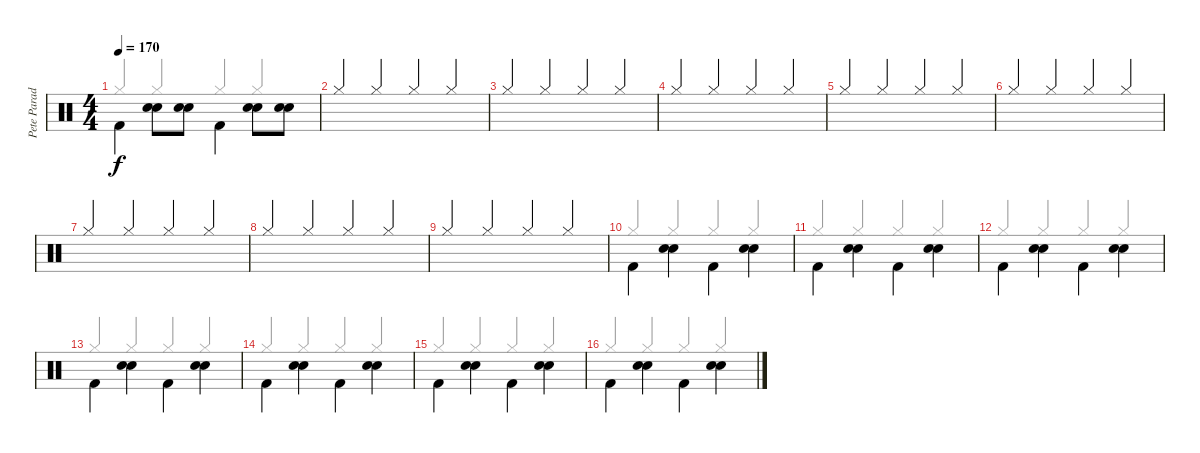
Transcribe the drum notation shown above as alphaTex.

\track ("Pete Parada" "Pete Parad") {instrument percussion}
\staff {score}
\articulation defaults
\voice
\ts (4 4)
\tempo 170
\clef neutral
\ks c "Kick (hit) 2".4{dy f beam Down}
("Electric Snare (hit)" "Electric Snare (hit)").8{beam Down} ("Electric Snare (hit)" "Electric Snare (hit)").8{beam Down} "Kick (hit) 2".4{beam Down} ("Electric Snare (hit)" "Electric Snare (hit)").8{beam Down} ("Electric Snare (hit)" "Electric Snare (hit)").8{beam Down} |
"Hi-Hat (closed)".4{beam Up} "Hi-Hat (closed)".4{beam Up} "Hi-Hat (closed)".4{beam Up} "Hi-Hat (closed)".4{beam Up} |
"Hi-Hat (closed)".4{beam Up} "Hi-Hat (closed)".4{beam Up} "Hi-Hat (closed)".4{beam Up} "Hi-Hat (closed)".4{beam Up} |
"Hi-Hat (closed)".4{beam Up} "Hi-Hat (closed)".4{beam Up} "Hi-Hat (closed)".4{beam Up} "Hi-Hat (closed)".4{beam Up} |
"Hi-Hat (closed)".4{beam Up} "Hi-Hat (closed)".4{beam Up} "Hi-Hat (closed)".4{beam Up} "Hi-Hat (closed)".4{beam Up} |
"Hi-Hat (closed)".4{beam Up} "Hi-Hat (closed)".4{beam Up} "Hi-Hat (closed)".4{beam Up} "Hi-Hat (closed)".4{beam Up} |
"Hi-Hat (closed)".4{beam Up} "Hi-Hat (closed)".4{beam Up} "Hi-Hat (closed)".4{beam Up} "Hi-Hat (closed)".4{beam Up} |
"Hi-Hat (closed)".4{beam Up} "Hi-Hat (closed)".4{beam Up} "Hi-Hat (closed)".4{beam Up} "Hi-Hat (closed)".4{beam Up} |
"Hi-Hat (closed)".4{beam Up} "Hi-Hat (closed)".4{beam Up} "Hi-Hat (closed)".4{beam Up} "Hi-Hat (closed)".4{beam Up} |
"Kick (hit) 2".4{beam Down} ("Electric Snare (hit)" "Electric Snare (hit)").4{beam Down} "Kick (hit) 2".4{beam Down} ("Electric Snare (hit)" "Electric Snare (hit)").4{beam Down} |
"Kick (hit) 2".4{beam Down} ("Electric Snare (hit)" "Electric Snare (hit)").4{beam Down} "Kick (hit) 2".4{beam Down} ("Electric Snare (hit)" "Electric Snare (hit)").4{beam Down} |
"Kick (hit) 2".4{beam Down} ("Electric Snare (hit)" "Electric Snare (hit)").4{beam Down} "Kick (hit) 2".4{beam Down} ("Electric Snare (hit)" "Electric Snare (hit)").4{beam Down} |
"Kick (hit) 2".4{beam Down} ("Electric Snare (hit)" "Electric Snare (hit)").4{beam Down} "Kick (hit) 2".4{beam Down} ("Electric Snare (hit)" "Electric Snare (hit)").4{beam Down} |
"Kick (hit) 2".4{beam Down} ("Electric Snare (hit)" "Electric Snare (hit)").4{beam Down} "Kick (hit) 2".4{beam Down} ("Electric Snare (hit)" "Electric Snare (hit)").4{beam Down} |
"Kick (hit) 2".4{beam Down} ("Electric Snare (hit)" "Electric Snare (hit)").4{beam Down} "Kick (hit) 2".4{beam Down} ("Electric Snare (hit)" "Electric Snare (hit)").4{beam Down} |
"Kick (hit) 2".4{beam Down} ("Electric Snare (hit)" "Electric Snare (hit)").4{beam Down} "Kick (hit) 2".4{beam Down} ("Electric Snare (hit)" "Electric Snare (hit)").4{beam Down}
\voice
\clef neutral
\ottava regular
\simile none
\ks c "Hi-Hat (closed)".4{dy f beam Up} "Hi-Hat (closed)".4{beam Up} "Hi-Hat (closed)".4{beam Up} "Hi-Hat (closed)".4{beam Up}
|
|
|
|
|
|
|
|
|
"Hi-Hat (closed)".4{beam Up} "Hi-Hat (closed)".4{beam Up} "Hi-Hat (closed)".4{beam Up} "Hi-Hat (closed)".4{beam Up} |
"Hi-Hat (closed)".4{beam Up} "Hi-Hat (closed)".4{beam Up} "Hi-Hat (closed)".4{beam Up} "Hi-Hat (closed)".4{beam Up} |
"Hi-Hat (closed)".4{beam Up} "Hi-Hat (closed)".4{beam Up} "Hi-Hat (closed)".4{beam Up} "Hi-Hat (closed)".4{beam Up} |
"Hi-Hat (closed)".4{beam Up} "Hi-Hat (closed)".4{beam Up} "Hi-Hat (closed)".4{beam Up} "Hi-Hat (closed)".4{beam Up} |
"Hi-Hat (closed)".4{beam Up} "Hi-Hat (closed)".4{beam Up} "Hi-Hat (closed)".4{beam Up} "Hi-Hat (closed)".4{beam Up} |
"Hi-Hat (closed)".4{beam Up} "Hi-Hat (closed)".4{beam Up} "Hi-Hat (closed)".4{beam Up} "Hi-Hat (closed)".4{beam Up} |
"Hi-Hat (closed)".4{beam Up} "Hi-Hat (closed)".4{beam Up} "Hi-Hat (closed)".4{beam Up} "Hi-Hat (closed)".4{beam Up}
